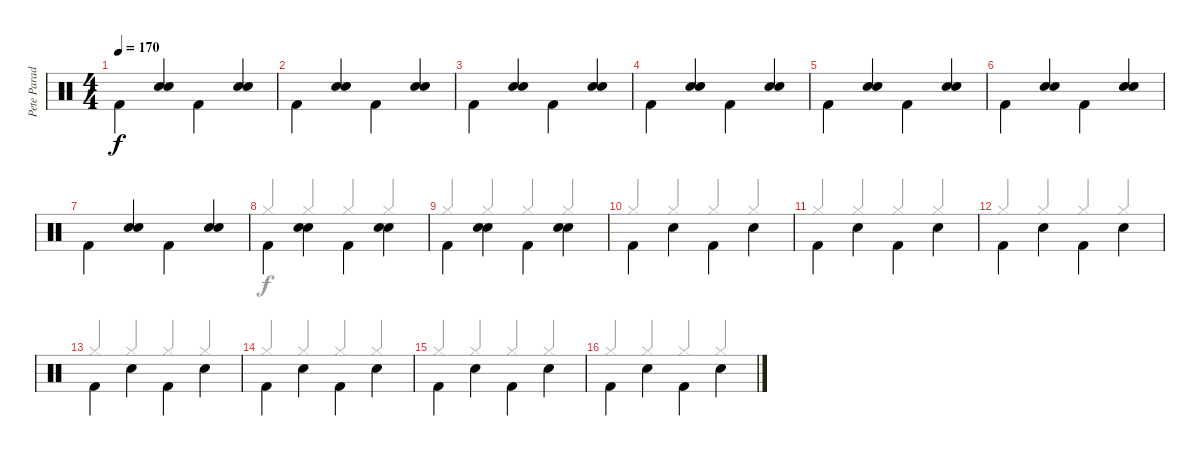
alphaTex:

\track ("Pete Parada" "Pete Parad") {instrument percussion}
\staff {score}
\articulation defaults
\voice
\ts (4 4)
\tempo 170
\clef neutral
\ks c "Kick (hit) 2".4{dy f beam Down}
("Electric Snare (hit)" "Electric Snare (hit)").4{beam Up} "Kick (hit) 2".4{beam Down} ("Electric Snare (hit)" "Electric Snare (hit)").4{beam Up} |
"Kick (hit) 2".4{beam Down} ("Electric Snare (hit)" "Electric Snare (hit)").4{beam Up} "Kick (hit) 2".4{beam Down} ("Electric Snare (hit)" "Electric Snare (hit)").4{beam Up} |
"Kick (hit) 2".4{beam Down} ("Electric Snare (hit)" "Electric Snare (hit)").4{beam Up} "Kick (hit) 2".4{beam Down} ("Electric Snare (hit)" "Electric Snare (hit)").4{beam Up} |
"Kick (hit) 2".4{beam Down} ("Electric Snare (hit)" "Electric Snare (hit)").4{beam Up} "Kick (hit) 2".4{beam Down} ("Electric Snare (hit)" "Electric Snare (hit)").4{beam Up} |
"Kick (hit) 2".4{beam Down} ("Electric Snare (hit)" "Electric Snare (hit)").4{beam Up} "Kick (hit) 2".4{beam Down} ("Electric Snare (hit)" "Electric Snare (hit)").4{beam Up} |
"Kick (hit) 2".4{beam Down} ("Electric Snare (hit)" "Electric Snare (hit)").4{beam Up} "Kick (hit) 2".4{beam Down} ("Electric Snare (hit)" "Electric Snare (hit)").4{beam Up} |
"Kick (hit) 2".4{beam Down} ("Electric Snare (hit)" "Electric Snare (hit)").4{beam Up} "Kick (hit) 2".4{beam Down} ("Electric Snare (hit)" "Electric Snare (hit)").4{beam Up} |
"Kick (hit) 2".4{beam Down} ("Electric Snare (hit)" "Electric Snare (hit)").4{beam Down} "Kick (hit) 2".4{beam Down} ("Electric Snare (hit)" "Electric Snare (hit)").4{beam Down} |
"Kick (hit) 2".4{beam Down} ("Electric Snare (hit)" "Electric Snare (hit)").4{beam Down} "Kick (hit) 2".4{beam Down} ("Electric Snare (hit)" "Electric Snare (hit)").4{beam Down} |
"Kick (hit) 2".4{beam Down} "Electric Snare (hit)".4{beam Down} "Kick (hit) 2".4{beam Down} "Electric Snare (hit)".4{beam Down} |
"Kick (hit) 2".4{beam Down} "Electric Snare (hit)".4{beam Down} "Kick (hit) 2".4{beam Down} "Electric Snare (hit)".4{beam Down} |
"Kick (hit) 2".4{beam Down} "Electric Snare (hit)".4{beam Down} "Kick (hit) 2".4{beam Down} "Electric Snare (hit)".4{beam Down} |
"Kick (hit) 2".4{beam Down} "Electric Snare (hit)".4{beam Down} "Kick (hit) 2".4{beam Down} "Electric Snare (hit)".4{beam Down} |
"Kick (hit) 2".4{beam Down} "Electric Snare (hit)".4{beam Down} "Kick (hit) 2".4{beam Down} "Electric Snare (hit)".4{beam Down} |
"Kick (hit) 2".4{beam Down} "Electric Snare (hit)".4{beam Down} "Kick (hit) 2".4{beam Down} "Electric Snare (hit)".4{beam Down} |
"Kick (hit) 2".4{beam Down} "Electric Snare (hit)".4{beam Down} "Kick (hit) 2".4{beam Down} "Electric Snare (hit)".4{beam Down}
\voice
\clef neutral
\ottava regular
\simile none
\ks c
|
|
|
|
|
|
|
"Hi-Hat (closed)".4{beam Up} "Hi-Hat (closed)".4{beam Up} "Hi-Hat (closed)".4{beam Up} "Hi-Hat (closed)".4{beam Up} |
"Hi-Hat (closed)".4{beam Up} "Hi-Hat (closed)".4{beam Up} "Hi-Hat (closed)".4{beam Up} "Hi-Hat (closed)".4{beam Up} |
"Hi-Hat (closed)".4{beam Up} "Hi-Hat (closed)".4{beam Up} "Hi-Hat (closed)".4{beam Up} "Hi-Hat (closed)".4{beam Up} |
"Hi-Hat (closed)".4{beam Up} "Hi-Hat (closed)".4{beam Up} "Hi-Hat (closed)".4{beam Up} "Hi-Hat (closed)".4{beam Up} |
"Hi-Hat (closed)".4{beam Up} "Hi-Hat (closed)".4{beam Up} "Hi-Hat (closed)".4{beam Up} "Hi-Hat (closed)".4{beam Up} |
"Hi-Hat (closed)".4{beam Up} "Hi-Hat (closed)".4{beam Up} "Hi-Hat (closed)".4{beam Up} "Hi-Hat (closed)".4{beam Up} |
"Hi-Hat (closed)".4{beam Up} "Hi-Hat (closed)".4{beam Up} "Hi-Hat (closed)".4{beam Up} "Hi-Hat (closed)".4{beam Up} |
"Hi-Hat (closed)".4{beam Up} "Hi-Hat (closed)".4{beam Up} "Hi-Hat (closed)".4{beam Up} "Hi-Hat (closed)".4{beam Up} |
"Hi-Hat (closed)".4{beam Up} "Hi-Hat (closed)".4{beam Up} "Hi-Hat (closed)".4{beam Up} "Hi-Hat (closed)".4{beam Up}
